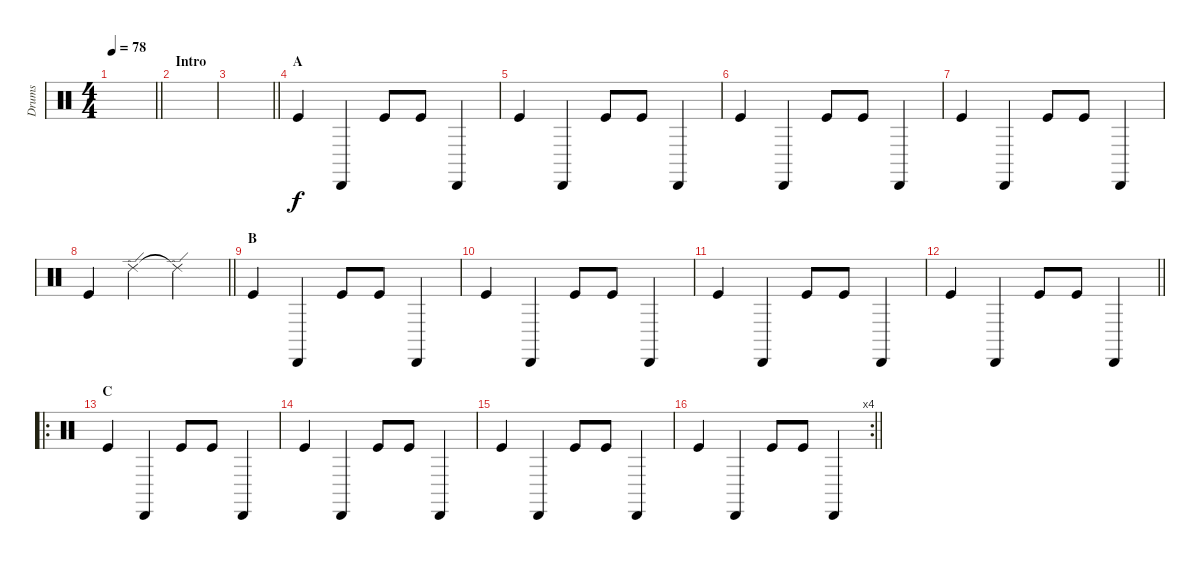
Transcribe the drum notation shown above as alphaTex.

\track ("Drums" "Drums") {instrument percussion}
\staff {score}
\articulation defaults
\ts (4 4)
\section ("" "")
\tempo 78
\clef neutral
\barLineRight lightlight
\ks c
|
\section ("" "Intro")
|
\barLineRight lightlight
|
\section ("" "A ")
"Kick (hit)".4 "Cabasa (hit)".4 "Kick (hit)".8 "Kick (hit)".8 "Cabasa (hit)".4 |
"Kick (hit)".4 "Cabasa (hit)".4 "Kick (hit)".8 "Kick (hit)".8 "Cabasa (hit)".4 |
"Kick (hit)".4 "Cabasa (hit)".4 "Kick (hit)".8 "Kick (hit)".8 "Cabasa (hit)".4 |
"Kick (hit)".4 "Cabasa (hit)".4 "Kick (hit)".8 "Kick (hit)".8 "Cabasa (hit)".4 |
\barLineRight lightlight "Kick (hit)".4 "Ride (edge) 2".4 "Ride (edge) 2"{t}.2
|
\section ("" "B")
"Kick (hit)".4 "Cabasa (hit)".4 "Kick (hit)".8 "Kick (hit)".8 "Cabasa (hit)".4 |
"Kick (hit)".4 "Cabasa (hit)".4 "Kick (hit)".8 "Kick (hit)".8 "Cabasa (hit)".4 |
"Kick (hit)".4 "Cabasa (hit)".4 "Kick (hit)".8 "Kick (hit)".8 "Cabasa (hit)".4 |
\barLineRight lightlight "Kick (hit)".4 "Cabasa (hit)".4 "Kick (hit)".8 "Kick (hit)".8 "Cabasa (hit)".4
|
\ro
\section ("" "C")
"Kick (hit)".4 "Cabasa (hit)".4 "Kick (hit)".8 "Kick (hit)".8 "Cabasa (hit)".4 |
"Kick (hit)".4 "Cabasa (hit)".4 "Kick (hit)".8 "Kick (hit)".8 "Cabasa (hit)".4 |
"Kick (hit)".4 "Cabasa (hit)".4 "Kick (hit)".8 "Kick (hit)".8 "Cabasa (hit)".4 |
\rc 4
\barLineRight lightlight "Kick (hit)".4 "Cabasa (hit)".4 "Kick (hit)".8 "Kick (hit)".8 "Cabasa (hit)".4
